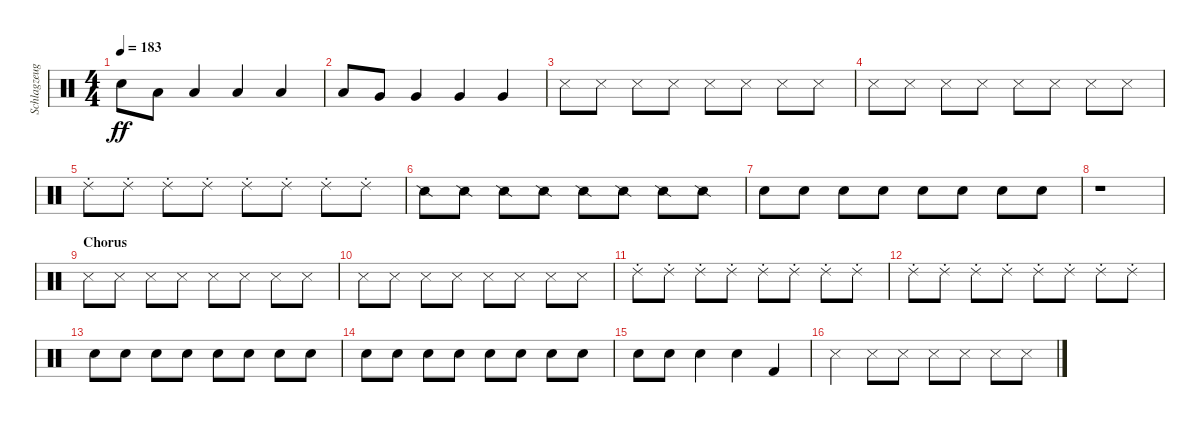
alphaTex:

\track ("Schlagzeug - Bela B." "Schlagzeug") {instrument percussion}
\staff {score}
\articulation defaults
\ts (4 4)
\tempo 183
\clef neutral
\ks c "Electric Snare (hit)".8{dy ff} "Low Floor Tom (hit)".8 "Low Floor Tom (hit)".4 "Low Floor Tom (hit)".4 "Low Floor Tom (hit)".4
|
"Low Floor Tom (hit)".8 "Very Low Tom (hit)".8 "Very Low Tom (hit)".4 "Very Low Tom (hit)".4 "Very Low Tom (hit)".4 |
"Metronome (hit)".8 "Metronome (hit)".8 "Metronome (hit)".8 "Metronome (hit)".8 "Metronome (hit)".8 "Metronome (hit)".8 "Metronome (hit)".8 "Metronome (hit)".8 |
"Metronome (hit)".8 "Metronome (hit)".8 "Metronome (hit)".8 "Metronome (hit)".8 "Metronome (hit)".8 "Metronome (hit)".8 "Metronome (hit)".8 "Metronome (hit)".8 |
"Ride (choke) 2".8 "Ride (choke) 2".8 "Ride (choke) 2".8 "Ride (choke) 2".8 "Ride (choke) 2".8 "Ride (choke) 2".8 "Ride (choke) 2".8 "Ride (choke) 2".8 |
"Snare (side stick) 2".8 "Snare (side stick) 2".8 "Snare (side stick) 2".8 "Snare (side stick) 2".8 "Snare (side stick) 2".8 "Snare (side stick) 2".8 "Snare (side stick) 2".8 "Snare (side stick) 2".8 |
"Electric Snare (hit)".8 "Electric Snare (hit)".8 "Electric Snare (hit)".8 "Electric Snare (hit)".8 "Electric Snare (hit)".8 "Electric Snare (hit)".8 "Electric Snare (hit)".8 "Electric Snare (hit)".8 |
r.1 |
\section ("" "Chorus")
"Metronome (hit)".8 "Metronome (hit)".8 "Metronome (hit)".8 "Metronome (hit)".8 "Metronome (hit)".8 "Metronome (hit)".8 "Metronome (hit)".8 "Metronome (hit)".8 |
"Metronome (hit)".8 "Metronome (hit)".8 "Metronome (hit)".8 "Metronome (hit)".8 "Metronome (hit)".8 "Metronome (hit)".8 "Metronome (hit)".8 "Metronome (hit)".8 |
"Ride (choke) 2".8 "Ride (choke) 2".8 "Ride (choke) 2".8 "Ride (choke) 2".8 "Ride (choke) 2".8 "Ride (choke) 2".8 "Ride (choke) 2".8 "Ride (choke) 2".8 |
"Ride (choke) 2".8 "Ride (choke) 2".8 "Ride (choke) 2".8 "Ride (choke) 2".8 "Ride (choke) 2".8 "Ride (choke) 2".8 "Ride (choke) 2".8 "Ride (choke) 2".8 |
"Snare (hit)".8 "Snare (hit)".8 "Snare (hit)".8 "Snare (hit)".8 "Snare (hit)".8 "Snare (hit)".8 "Snare (hit)".8 "Snare (hit)".8 |
"Snare (hit)".8 "Snare (hit)".8 "Snare (hit)".8 "Snare (hit)".8 "Snare (hit)".8 "Snare (hit)".8 "Snare (hit)".8 "Snare (hit)".8 |
"Electric Snare (hit)".8 "Electric Snare (hit)".8 "Electric Snare (hit)".4 "Snare (hit) 2".4 "Kick (hit) 2".4 |
"Metronome (hit)".4 "Metronome (hit)".8 "Metronome (hit)".8 "Metronome (hit)".8 "Metronome (hit)".8 "Metronome (hit)".8 "Metronome (hit)".8
